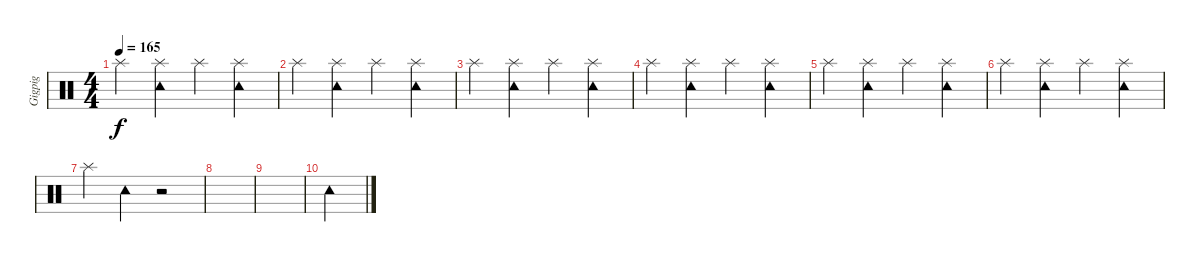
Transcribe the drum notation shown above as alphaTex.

\track ("Gigpig" "Gigpig") {instrument percussion}
\staff {score}
\articulation defaults
\ts (4 4)
\tempo 165
\clef neutral
\ks c "Splash (hit)".4{dy f}
("Splash (hit)" "Tambourine (hit)").4 "Splash (hit)".4 ("Splash (hit)" "Tambourine (hit)").4 |
"Splash (hit)".4 ("Splash (hit)" "Tambourine (hit)").4 "Splash (hit)".4 ("Splash (hit)" "Tambourine (hit)").4 |
"Splash (hit)".4 ("Splash (hit)" "Tambourine (hit)").4 "Splash (hit)".4 ("Splash (hit)" "Tambourine (hit)").4 |
"Splash (hit)".4 ("Splash (hit)" "Tambourine (hit)").4 "Splash (hit)".4 ("Splash (hit)" "Tambourine (hit)").4 |
"Splash (hit)".4 ("Splash (hit)" "Tambourine (hit)").4 "Splash (hit)".4 ("Splash (hit)" "Tambourine (hit)").4 |
"Splash (hit)".4 ("Splash (hit)" "Tambourine (hit)").4 "Splash (hit)".4 ("Splash (hit)" "Tambourine (hit)").4 |
"Splash (hit)".4 "Tambourine (hit)".4 r.2 |
|
|
"Tambourine (hit)".4
